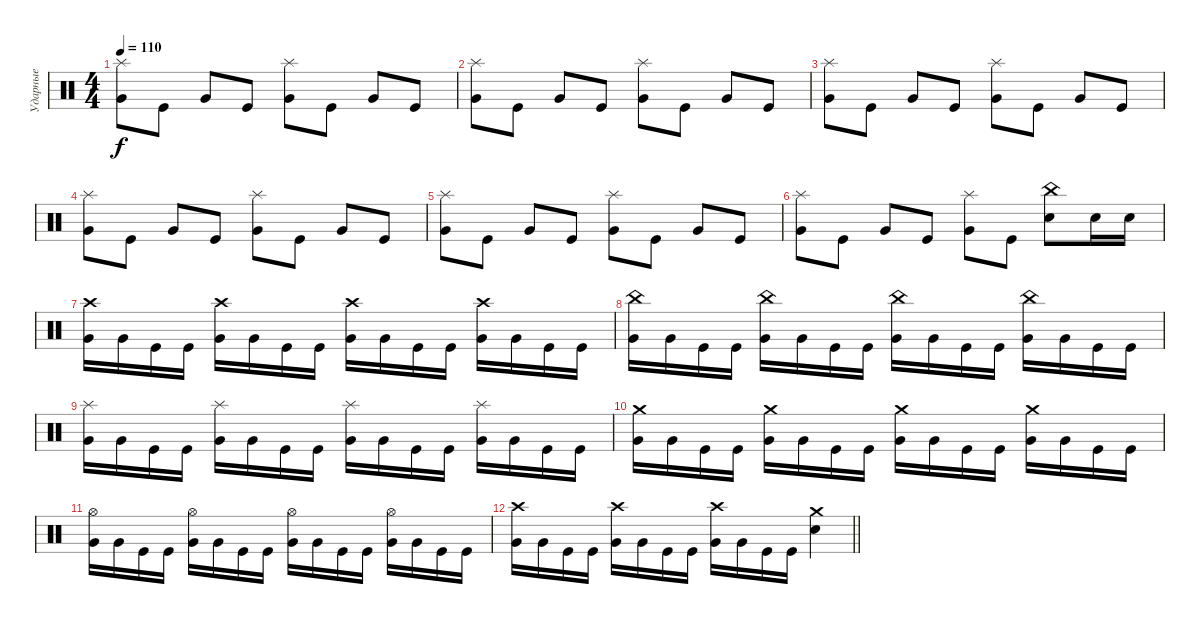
\track ("Ударные" "Ударные") {instrument percussion}
\staff {score}
\articulation defaults
\ts (4 4)
\tempo 110
\clef neutral
\ks c
("Splash (hit)" "Very Low Tom (hit)").8{dy f} "Kick (hit)".8 "Very Low Tom (hit)".8 "Kick (hit)".8 ("Splash (hit)" "Very Low Tom (hit)").8 "Kick (hit)".8 "Very Low Tom (hit)".8 "Kick (hit)".8 |
("Splash (hit)" "Very Low Tom (hit)").8 "Kick (hit)".8 "Very Low Tom (hit)".8 "Kick (hit)".8 ("Splash (hit)" "Very Low Tom (hit)").8 "Kick (hit)".8 "Very Low Tom (hit)".8 "Kick (hit)".8 |
("Splash (hit)" "Very Low Tom (hit)").8 "Kick (hit)".8 "Very Low Tom (hit)".8 "Kick (hit)".8 ("Splash (hit)" "Very Low Tom (hit)").8 "Kick (hit)".8 "Very Low Tom (hit)".8 "Kick (hit)".8 |
("Splash (hit)" "Very Low Tom (hit)").8 "Kick (hit)".8 "Very Low Tom (hit)".8 "Kick (hit)".8 ("Splash (hit)" "Very Low Tom (hit)").8 "Kick (hit)".8 "Very Low Tom (hit)".8 "Kick (hit)".8 |
("Splash (hit)" "Very Low Tom (hit)").8 "Kick (hit)".8 "Very Low Tom (hit)".8 "Kick (hit)".8 ("Splash (hit)" "Very Low Tom (hit)").8 "Kick (hit)".8 "Very Low Tom (hit)".8 "Kick (hit)".8 |
("Splash (hit)" "Very Low Tom (hit)").8 "Kick (hit)".8 "Very Low Tom (hit)".8 "Kick (hit)".8 ("Splash (hit)" "Very Low Tom (hit)").8 "Kick (hit)".8 ("China (hit)" "Electric Snare (hit)").8 "Electric Snare (hit)".16 "Electric Snare (hit)".16 |
("Crash high (hit)" "Very Low Tom (hit)").16 "Very Low Tom (hit)".16 "Kick (hit)".16 "Kick (hit)".16 ("Crash high (hit)" "Very Low Tom (hit)").16 "Very Low Tom (hit)".16 "Kick (hit)".16 "Kick (hit)".16 ("Crash high (hit)" "Very Low Tom (hit)").16 "Very Low Tom (hit)".16 "Kick (hit)".16 "Kick (hit)".16 ("Crash high (hit)" "Very Low Tom (hit)").16 "Very Low Tom (hit)".16 "Kick (hit)".16 "Kick (hit)".16 |
("China (hit)" "Very Low Tom (hit)").16 "Very Low Tom (hit)".16 "Kick (hit)".16 "Kick (hit)".16 ("China (hit)" "Very Low Tom (hit)").16 "Very Low Tom (hit)".16 "Kick (hit)".16 "Kick (hit)".16 ("China (hit)" "Very Low Tom (hit)").16 "Very Low Tom (hit)".16 "Kick (hit)".16 "Kick (hit)".16 ("China (hit)" "Very Low Tom (hit)").16 "Very Low Tom (hit)".16 "Kick (hit)".16 "Kick (hit)".16 |
("Splash (hit)" "Very Low Tom (hit)").16 "Very Low Tom (hit)".16 "Kick (hit)".16 "Kick (hit)".16 ("Splash (hit)" "Very Low Tom (hit)").16 "Very Low Tom (hit)".16 "Kick (hit)".16 "Kick (hit)".16 ("Splash (hit)" "Very Low Tom (hit)").16 "Very Low Tom (hit)".16 "Kick (hit)".16 "Kick (hit)".16 ("Splash (hit)" "Very Low Tom (hit)").16 "Very Low Tom (hit)".16 "Kick (hit)".16 "Kick (hit)".16 |
("Crash medium (hit)" "Very Low Tom (hit)").16 "Very Low Tom (hit)".16 "Kick (hit)".16 "Kick (hit)".16 ("Crash medium (hit)" "Very Low Tom (hit)").16 "Very Low Tom (hit)".16 "Kick (hit)".16 "Kick (hit)".16 ("Crash medium (hit)" "Very Low Tom (hit)").16 "Very Low Tom (hit)".16 "Kick (hit)".16 "Kick (hit)".16 ("Crash medium (hit)" "Very Low Tom (hit)").16 "Very Low Tom (hit)".16 "Kick (hit)".16 "Kick (hit)".16 |
("Hi-Hat (open)" "Very Low Tom (hit)").16 "Very Low Tom (hit)".16 "Kick (hit)".16 "Kick (hit)".16 ("Hi-Hat (open)" "Very Low Tom (hit)").16 "Very Low Tom (hit)".16 "Kick (hit)".16 "Kick (hit)".16 ("Hi-Hat (open)" "Very Low Tom (hit)").16 "Very Low Tom (hit)".16 "Kick (hit)".16 "Kick (hit)".16 ("Hi-Hat (open)" "Very Low Tom (hit)").16 "Very Low Tom (hit)".16 "Kick (hit)".16 "Kick (hit)".16 |
\barLineRight lightlight
("Crash high (hit)" "Very Low Tom (hit)").16 "Very Low Tom (hit)".16 "Kick (hit)".16 "Kick (hit)".16 ("Crash high (hit)" "Very Low Tom (hit)").16 "Very Low Tom (hit)".16 "Kick (hit)".16 "Kick (hit)".16 ("Crash high (hit)" "Very Low Tom (hit)").16 "Very Low Tom (hit)".16 "Kick (hit)".16 "Kick (hit)".16 ("Crash medium (hit)" "Electric Snare (hit)").4
